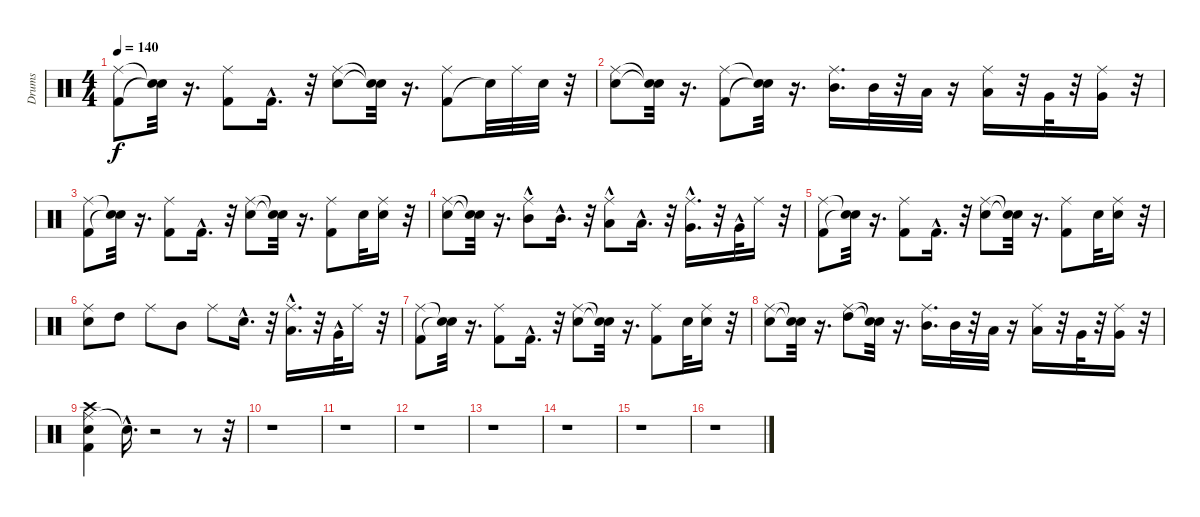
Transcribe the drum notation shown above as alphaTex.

\track ("Drums" "Drums") {instrument percussion}
\staff {score}
\articulation defaults
\ts (4 4)
\tempo 140
\clef neutral
\ks c
("Ride (middle)" "Kick (hit) 2").8{dy f} ("Snare (hit)"{t} "Snare (hit)"{t}).32 r.16{d} ("Ride (middle)" "Kick (hit) 2").8 "Kick (hit) 2"{hac}.16{d} r.32 ("Snare (hit) 2" "Ride (middle)").8 ("Snare (hit)"{t} "Snare (hit)"{t}).32 r.16{d} ("Kick (hit) 2" "Ride (middle)").8 "Snare (hit)"{t}.32 "Ride (middle)".32 "Snare (hit) 2".32 r.32 |
("Snare (hit) 2" "Ride (middle)").8 ("Snare (hit)"{t} "Snare (hit)"{t}).32 r.16{d} ("Ride (middle)" "Kick (hit) 2").8 ("Snare (hit)"{t} "Snare (hit)"{t}).32 r.16{d} ("Ride (middle)" "Mid Tom (hit)").16{d} "Mid Tom (hit)".32 r.32 "Low Tom (hit)".32 r.16 ("Low Tom (hit)" "Ride (middle)").16 r.32 "Very Low Tom (hit)".32 r.32 ("Very Low Tom (hit)" "Ride (middle)").16 r.32 |
("Ride (middle)" "Kick (hit) 2").8 ("Snare (hit)"{t} "Snare (hit)"{t}).32 r.16{d} ("Ride (middle)" "Kick (hit) 2").8 "Kick (hit) 2"{hac}.16{d} r.32 ("Snare (hit) 2" "Ride (middle)").8 ("Snare (hit)"{t} "Snare (hit)"{t}).32 r.16{d} ("Kick (hit) 2" "Ride (middle)").8 "Snare (hit) 2".32 ("Snare (hit) 2" "Ride (middle)").16 r.32 |
("Ride (middle)" "Snare (hit) 2").8 ("Snare (hit)"{t} "Snare (hit)"{t}).32 r.16{d} ("Mid Tom (hit)"{hac} "Ride (middle)").8 "Mid Tom (hit)"{hac}.16{d} r.32 ("Low Tom (hit)"{hac} "Ride (middle)").8 "Low Tom (hit)"{hac}.16{d} r.32 ("Ride (middle)" "Very Low Tom (hit)"{hac}).16{d} r.32 "Very Low Tom (hit)"{hac}.32 "Ride (middle)".16 r.32 |
("Kick (hit) 2" "Ride (middle)").8 ("Snare (hit)"{t} "Snare (hit)"{t}).32 r.16{d} ("Kick (hit) 2" "Ride (middle)").8 "Kick (hit) 2"{hac}.16{d} r.32 ("Ride (middle)" "Snare (hit) 2").8 ("Snare (hit)"{t} "Snare (hit)"{t}).32 r.16{d} ("Kick (hit) 2" "Ride (middle)").8 "Snare (hit) 2".32 ("Ride (middle)" "Snare (hit) 2").16 r.32 |
("Snare (hit) 2" "Ride (middle)").8 "High Tom (hit)".8 "Ride (middle)".8 "Mid Tom (hit)".8 "Ride (middle)".8 "Snare (hit) 2"{hac}.16{d} r.32 ("Ride (middle)" "Low Tom (hit)"{hac}).16{d} r.32 "Very Low Tom (hit)"{hac}.32 "Ride (middle)".16 r.32 |
("Ride (middle)" "Kick (hit) 2").8 ("Snare (hit)"{t} "Snare (hit)"{t}).32 r.16{d} ("Ride (middle)" "Kick (hit) 2").8 "Kick (hit) 2"{hac}.16{d} r.32 ("Snare (hit) 2" "Ride (middle)").8 ("Snare (hit)"{t} "Snare (hit)"{t}).32 r.16{d} ("Ride (middle)" "Kick (hit) 2").8 "Snare (hit) 2".32 ("Snare (hit) 2" "Ride (middle)").16 r.32 |
("Snare (hit) 2" "Ride (middle)").8 ("Snare (hit)"{t} "Snare (hit)"{t}).32 r.16{d} ("High Tom (hit)" "Ride (middle)").8 ("Snare (hit)"{t} "Snare (hit)"{t}).32 r.16{d} ("Ride (middle)" "Mid Tom (hit)").16{d} "Mid Tom (hit)".32 r.32 "Low Tom (hit)".32 r.16 ("Ride (middle)" "Low Tom (hit)").16 r.32 "Very Low Tom (hit)".32 r.32 ("Very Low Tom (hit)" "Ride (middle)").16 r.32 |
("Ride (middle)" "Kick (hit) 2" "Snare (hit) 2" "Crash high (hit)").4 "Snare (hit)"{hac t}.16{d} r.2 r.8 r.32 |
r.1 |
r.1 |
r.1 |
r.1 |
r.1 |
r.1 |
r.1
